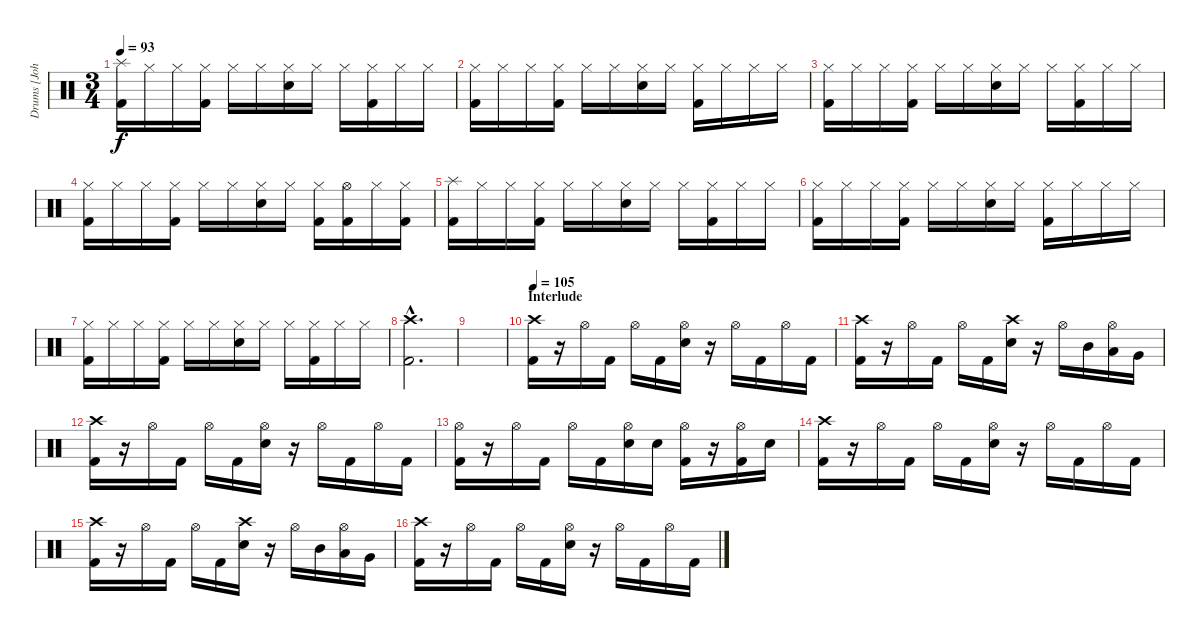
\track ("Drums [John Otto]" "Drums [Joh") {instrument percussion}
\staff {score}
\articulation defaults
\ts (3 4)
\tempo 93
\clef neutral
\ks c
("Splash (hit)" "Kick (hit) 2").16{dy f} "Hi-Hat (closed)".16 "Hi-Hat (closed)".16 ("Hi-Hat (closed)" "Kick (hit) 2").16 "Hi-Hat (closed)".16 "Hi-Hat (closed)".16 ("Hi-Hat (closed)" "Electric Snare (hit)").16 "Hi-Hat (closed)".16 "Hi-Hat (closed)".16 ("Hi-Hat (closed)" "Kick (hit) 2").16 "Hi-Hat (closed)".16 "Hi-Hat (closed)".16 |
("Hi-Hat (closed)" "Kick (hit) 2").16 "Hi-Hat (closed)".16 "Hi-Hat (closed)".16 ("Hi-Hat (closed)" "Kick (hit) 2").16 "Hi-Hat (closed)".16 "Hi-Hat (closed)".16 ("Hi-Hat (closed)" "Electric Snare (hit)").16 "Hi-Hat (closed)".16 ("Hi-Hat (closed)" "Kick (hit) 2").16 "Hi-Hat (closed)".16 "Hi-Hat (closed)".16 "Hi-Hat (closed)".16 |
("Hi-Hat (closed)" "Kick (hit) 2").16 "Hi-Hat (closed)".16 "Hi-Hat (closed)".16 ("Hi-Hat (closed)" "Kick (hit) 2").16 "Hi-Hat (closed)".16 "Hi-Hat (closed)".16 ("Hi-Hat (closed)" "Electric Snare (hit)").16 "Hi-Hat (closed)".16 "Hi-Hat (closed)".16 ("Hi-Hat (closed)" "Kick (hit) 2").16 "Hi-Hat (closed)".16 "Hi-Hat (closed)".16 |
("Hi-Hat (closed)" "Kick (hit) 2").16 "Hi-Hat (closed)".16 "Hi-Hat (closed)".16 ("Hi-Hat (closed)" "Kick (hit) 2").16 "Hi-Hat (closed)".16 "Hi-Hat (closed)".16 ("Hi-Hat (closed)" "Electric Snare (hit)").16 "Hi-Hat (closed)".16 ("Hi-Hat (closed)" "Kick (hit) 2").16 ("Hi-Hat (open)" "Kick (hit) 2").16 "Hi-Hat (closed)".16 ("Hi-Hat (closed)" "Kick (hit) 2").16 |
("Splash (hit)" "Kick (hit) 2").16 "Hi-Hat (closed)".16 "Hi-Hat (closed)".16 ("Hi-Hat (closed)" "Kick (hit) 2").16 "Hi-Hat (closed)".16 "Hi-Hat (closed)".16 ("Hi-Hat (closed)" "Electric Snare (hit)").16 "Hi-Hat (closed)".16 "Hi-Hat (closed)".16 ("Hi-Hat (closed)" "Kick (hit) 2").16 "Hi-Hat (closed)".16 "Hi-Hat (closed)".16 |
("Hi-Hat (closed)" "Kick (hit) 2").16 "Hi-Hat (closed)".16 "Hi-Hat (closed)".16 ("Hi-Hat (closed)" "Kick (hit) 2").16 "Hi-Hat (closed)".16 "Hi-Hat (closed)".16 ("Hi-Hat (closed)" "Electric Snare (hit)").16 "Hi-Hat (closed)".16 ("Hi-Hat (closed)" "Kick (hit) 2").16 "Hi-Hat (closed)".16 "Hi-Hat (closed)".16 "Hi-Hat (closed)".16 |
("Hi-Hat (closed)" "Kick (hit) 2").16 "Hi-Hat (closed)".16 "Hi-Hat (closed)".16 ("Hi-Hat (closed)" "Kick (hit) 2").16 "Hi-Hat (closed)".16 "Hi-Hat (closed)".16 ("Hi-Hat (closed)" "Electric Snare (hit)").16 "Hi-Hat (closed)".16 "Hi-Hat (closed)".16 ("Hi-Hat (closed)" "Kick (hit) 2").16 "Hi-Hat (closed)".16 "Hi-Hat (closed)".16 |
("Crash high (hit)"{hac} "Kick (hit) 2"{hac}).2{d} |
|
\section ("" "Interlude")
\tempo 105
("Crash high (hit)" "Kick (hit) 2").16 r.16 "Hi-Hat (open)".16 "Kick (hit) 2".16 "Hi-Hat (open)".16 "Kick (hit) 2".16 ("Hi-Hat (open)" "Electric Snare (hit)").16 r.16 "Hi-Hat (open)".16 "Kick (hit) 2".16 "Hi-Hat (open)".16 "Kick (hit) 2".16 |
("Crash high (hit)" "Kick (hit) 2").16 r.16 "Hi-Hat (open)".16 "Kick (hit) 2".16 "Hi-Hat (open)".16 "Kick (hit) 2".16 ("Crash high (hit)" "Electric Snare (hit)").16 r.16 "Hi-Hat (open)".16 "Mid Tom (hit)".16 ("Hi-Hat (open)" "Low Tom (hit)").16 "Very Low Tom (hit)".16 |
("Crash high (hit)" "Kick (hit) 2").16 r.16 "Hi-Hat (open)".16 "Kick (hit) 2".16 "Hi-Hat (open)".16 "Kick (hit) 2".16 ("Hi-Hat (open)" "Electric Snare (hit)").16 r.16 "Hi-Hat (open)".16 "Kick (hit) 2".16 "Hi-Hat (open)".16 "Kick (hit) 2".16 |
("Hi-Hat (open)" "Kick (hit) 2").16 r.16 "Hi-Hat (open)".16 "Kick (hit) 2".16 "Hi-Hat (open)".16 "Kick (hit) 2".16 ("Hi-Hat (open)" "Electric Snare (hit)").16 "Electric Snare (hit)".16 ("Hi-Hat (open)" "Kick (hit) 2").16 r.16 ("Hi-Hat (open)" "Kick (hit) 2").16 "Electric Snare (hit)".16 |
("Crash high (hit)" "Kick (hit) 2").16 r.16 "Hi-Hat (open)".16 "Kick (hit) 2".16 "Hi-Hat (open)".16 "Kick (hit) 2".16 ("Hi-Hat (open)" "Electric Snare (hit)").16 r.16 "Hi-Hat (open)".16 "Kick (hit) 2".16 "Hi-Hat (open)".16 "Kick (hit) 2".16 |
("Crash high (hit)" "Kick (hit) 2").16 r.16 "Hi-Hat (open)".16 "Kick (hit) 2".16 "Hi-Hat (open)".16 "Kick (hit) 2".16 ("Crash high (hit)" "Electric Snare (hit)").16 r.16 "Hi-Hat (open)".16 "Mid Tom (hit)".16 ("Hi-Hat (open)" "Low Tom (hit)").16 "Very Low Tom (hit)".16 |
("Crash high (hit)" "Kick (hit) 2").16 r.16 "Hi-Hat (open)".16 "Kick (hit) 2".16 "Hi-Hat (open)".16 "Kick (hit) 2".16 ("Hi-Hat (open)" "Electric Snare (hit)").16 r.16 "Hi-Hat (open)".16 "Kick (hit) 2".16 "Hi-Hat (open)".16 "Kick (hit) 2".16
